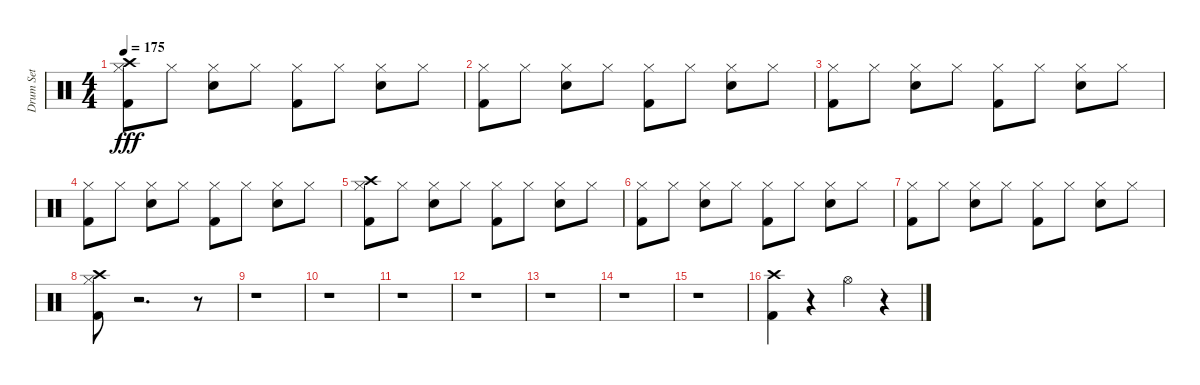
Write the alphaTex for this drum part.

\track ("Drum Set" "Drum Set") {instrument percussion}
\staff {score}
\articulation defaults
\ts (4 4)
\tempo 175
\clef neutral
\ks c
("Kick (hit) 2" "Crash high (hit)" "Hi-Hat (closed)").8{dy fff} "Hi-Hat (closed)".8 ("Electric Snare (hit)" "Hi-Hat (closed)").8 "Hi-Hat (closed)".8 ("Kick (hit) 2" "Hi-Hat (closed)").8 "Hi-Hat (closed)".8 ("Electric Snare (hit)" "Hi-Hat (closed)").8 "Hi-Hat (closed)".8 |
("Kick (hit) 2" "Hi-Hat (closed)").8 "Hi-Hat (closed)".8 ("Electric Snare (hit)" "Hi-Hat (closed)").8 "Hi-Hat (closed)".8 ("Kick (hit) 2" "Hi-Hat (closed)").8 "Hi-Hat (closed)".8 ("Electric Snare (hit)" "Hi-Hat (closed)").8 "Hi-Hat (closed)".8 |
("Kick (hit) 2" "Hi-Hat (closed)").8 "Hi-Hat (closed)".8 ("Electric Snare (hit)" "Hi-Hat (closed)").8 "Hi-Hat (closed)".8 ("Kick (hit) 2" "Hi-Hat (closed)").8 "Hi-Hat (closed)".8 ("Electric Snare (hit)" "Hi-Hat (closed)").8 "Hi-Hat (closed)".8 |
("Kick (hit) 2" "Hi-Hat (closed)").8 "Hi-Hat (closed)".8 ("Electric Snare (hit)" "Hi-Hat (closed)").8 "Hi-Hat (closed)".8 ("Kick (hit) 2" "Hi-Hat (closed)").8 "Hi-Hat (closed)".8 ("Electric Snare (hit)" "Hi-Hat (closed)").8 "Hi-Hat (closed)".8 |
("Kick (hit) 2" "Hi-Hat (closed)" "Crash high (hit)").8 "Hi-Hat (closed)".8 ("Electric Snare (hit)" "Hi-Hat (closed)").8 "Hi-Hat (closed)".8 ("Kick (hit) 2" "Hi-Hat (closed)").8 "Hi-Hat (closed)".8 ("Electric Snare (hit)" "Hi-Hat (closed)").8 "Hi-Hat (closed)".8 |
("Kick (hit) 2" "Hi-Hat (closed)").8 "Hi-Hat (closed)".8 ("Electric Snare (hit)" "Hi-Hat (closed)").8 "Hi-Hat (closed)".8 ("Kick (hit) 2" "Hi-Hat (closed)").8 "Hi-Hat (closed)".8 ("Electric Snare (hit)" "Hi-Hat (closed)").8 "Hi-Hat (closed)".8 |
("Kick (hit) 2" "Hi-Hat (closed)").8 "Hi-Hat (closed)".8 ("Electric Snare (hit)" "Hi-Hat (closed)").8 "Hi-Hat (closed)".8 ("Kick (hit) 2" "Hi-Hat (closed)").8 "Hi-Hat (closed)".8 ("Electric Snare (hit)" "Hi-Hat (closed)").8 "Hi-Hat (closed)".8 |
("Kick (hit) 2" "Hi-Hat (closed)" "Crash high (hit)").8 r.2{d} r.8 |
r.1 |
r.1 |
r.1 |
r.1 |
r.1 |
r.1 |
r.1 |
("Kick (hit) 2" "Crash high (hit)").4 r.4 "Hi-Hat (open)".4 r.4
